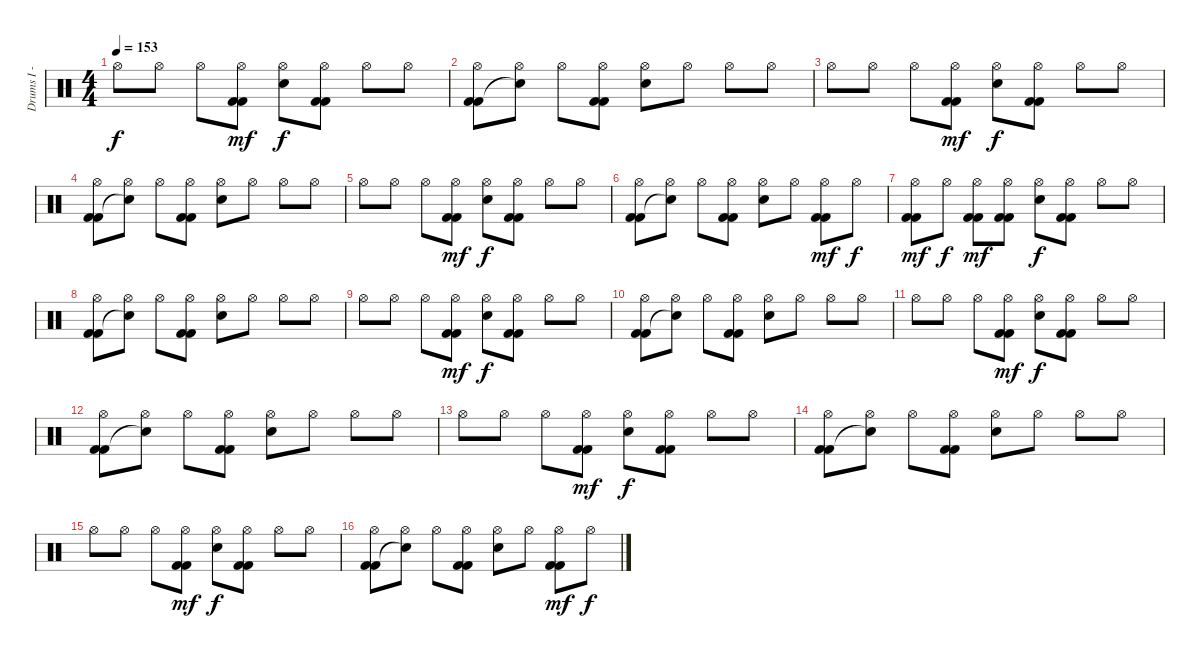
\track ("Drums I - Adam" "Drums I - ") {instrument percussion}
\staff {score}
\articulation defaults
\ts (4 4)
\tempo 153
\clef neutral
\ks c "Hi-Hat (open)".8{dy f} "Hi-Hat (open)".8 "Hi-Hat (open)".8
("Hi-Hat (open)" "Kick (hit) 2" "Kick (hit) 2").8{dy mf} ("Hi-Hat (open)" "Electric Snare (hit)").8{dy f} ("Hi-Hat (open)" "Kick (hit) 2" "Kick (hit) 2").8 "Hi-Hat (open)".8 "Hi-Hat (open)".8 |
("Hi-Hat (open)" "Kick (hit) 2" "Kick (hit) 2").8 ("Hi-Hat (open)" "Snare (hit)"{t}).8 "Hi-Hat (open)".8 ("Hi-Hat (open)" "Kick (hit) 2" "Kick (hit) 2").8 ("Hi-Hat (open)" "Electric Snare (hit)").8 "Hi-Hat (open)".8 "Hi-Hat (open)".8 "Hi-Hat (open)".8 |
"Hi-Hat (open)".8 "Hi-Hat (open)".8 "Hi-Hat (open)".8 ("Hi-Hat (open)" "Kick (hit) 2" "Kick (hit) 2").8{dy mf} ("Hi-Hat (open)" "Electric Snare (hit)").8{dy f} ("Hi-Hat (open)" "Kick (hit) 2" "Kick (hit) 2").8 "Hi-Hat (open)".8 "Hi-Hat (open)".8 |
("Hi-Hat (open)" "Kick (hit) 2" "Kick (hit) 2").8 ("Hi-Hat (open)" "Snare (hit)"{t}).8 "Hi-Hat (open)".8 ("Hi-Hat (open)" "Kick (hit) 2" "Kick (hit) 2").8 ("Hi-Hat (open)" "Electric Snare (hit)").8 "Hi-Hat (open)".8 "Hi-Hat (open)".8 "Hi-Hat (open)".8 |
"Hi-Hat (open)".8 "Hi-Hat (open)".8 "Hi-Hat (open)".8 ("Hi-Hat (open)" "Kick (hit) 2" "Kick (hit) 2").8{dy mf} ("Hi-Hat (open)" "Electric Snare (hit)").8{dy f} ("Hi-Hat (open)" "Kick (hit) 2" "Kick (hit) 2").8 "Hi-Hat (open)".8 "Hi-Hat (open)".8 |
("Hi-Hat (open)" "Kick (hit) 2" "Kick (hit) 2").8 ("Hi-Hat (open)" "Snare (hit)"{t}).8 "Hi-Hat (open)".8 ("Hi-Hat (open)" "Kick (hit) 2" "Kick (hit) 2").8 ("Hi-Hat (open)" "Electric Snare (hit)").8 "Hi-Hat (open)".8 ("Hi-Hat (open)" "Kick (hit) 2" "Kick (hit) 2").8{dy mf} "Hi-Hat (open)".8{dy f} |
("Hi-Hat (open)" "Kick (hit) 2" "Kick (hit) 2").8{dy mf} "Hi-Hat (open)".8{dy f} ("Hi-Hat (open)" "Kick (hit) 2" "Kick (hit) 2").8{dy mf} ("Hi-Hat (open)" "Kick (hit) 2" "Kick (hit) 2").8 ("Hi-Hat (open)" "Electric Snare (hit)").8{dy f} ("Hi-Hat (open)" "Kick (hit) 2" "Kick (hit) 2").8 "Hi-Hat (open)".8 "Hi-Hat (open)".8 |
("Hi-Hat (open)" "Kick (hit) 2" "Kick (hit) 2").8 ("Hi-Hat (open)" "Snare (hit)"{t}).8 "Hi-Hat (open)".8 ("Hi-Hat (open)" "Kick (hit) 2" "Kick (hit) 2").8 ("Hi-Hat (open)" "Electric Snare (hit)").8 "Hi-Hat (open)".8 "Hi-Hat (open)".8 "Hi-Hat (open)".8 |
"Hi-Hat (open)".8 "Hi-Hat (open)".8 "Hi-Hat (open)".8 ("Hi-Hat (open)" "Kick (hit) 2" "Kick (hit) 2").8{dy mf} ("Hi-Hat (open)" "Electric Snare (hit)").8{dy f} ("Hi-Hat (open)" "Kick (hit) 2" "Kick (hit) 2").8 "Hi-Hat (open)".8 "Hi-Hat (open)".8 |
("Hi-Hat (open)" "Kick (hit) 2" "Kick (hit) 2").8 ("Hi-Hat (open)" "Snare (hit)"{t}).8 "Hi-Hat (open)".8 ("Hi-Hat (open)" "Kick (hit) 2" "Kick (hit) 2").8 ("Hi-Hat (open)" "Electric Snare (hit)").8 "Hi-Hat (open)".8 "Hi-Hat (open)".8 "Hi-Hat (open)".8 |
"Hi-Hat (open)".8 "Hi-Hat (open)".8 "Hi-Hat (open)".8 ("Hi-Hat (open)" "Kick (hit) 2" "Kick (hit) 2").8{dy mf} ("Hi-Hat (open)" "Electric Snare (hit)").8{dy f} ("Hi-Hat (open)" "Kick (hit) 2" "Kick (hit) 2").8 "Hi-Hat (open)".8 "Hi-Hat (open)".8 |
("Hi-Hat (open)" "Kick (hit) 2" "Kick (hit) 2").8 ("Hi-Hat (open)" "Snare (hit)"{t}).8 "Hi-Hat (open)".8 ("Hi-Hat (open)" "Kick (hit) 2" "Kick (hit) 2").8 ("Hi-Hat (open)" "Electric Snare (hit)").8 "Hi-Hat (open)".8 "Hi-Hat (open)".8 "Hi-Hat (open)".8 |
"Hi-Hat (open)".8 "Hi-Hat (open)".8 "Hi-Hat (open)".8 ("Hi-Hat (open)" "Kick (hit) 2" "Kick (hit) 2").8{dy mf} ("Hi-Hat (open)" "Electric Snare (hit)").8{dy f} ("Hi-Hat (open)" "Kick (hit) 2" "Kick (hit) 2").8 "Hi-Hat (open)".8 "Hi-Hat (open)".8 |
("Hi-Hat (open)" "Kick (hit) 2" "Kick (hit) 2").8 ("Hi-Hat (open)" "Snare (hit)"{t}).8 "Hi-Hat (open)".8 ("Hi-Hat (open)" "Kick (hit) 2" "Kick (hit) 2").8 ("Hi-Hat (open)" "Electric Snare (hit)").8 "Hi-Hat (open)".8 "Hi-Hat (open)".8 "Hi-Hat (open)".8 |
"Hi-Hat (open)".8 "Hi-Hat (open)".8 "Hi-Hat (open)".8 ("Hi-Hat (open)" "Kick (hit) 2" "Kick (hit) 2").8{dy mf} ("Hi-Hat (open)" "Electric Snare (hit)").8{dy f} ("Hi-Hat (open)" "Kick (hit) 2" "Kick (hit) 2").8 "Hi-Hat (open)".8 "Hi-Hat (open)".8 |
("Hi-Hat (open)" "Kick (hit) 2" "Kick (hit) 2").8 ("Hi-Hat (open)" "Snare (hit)"{t}).8 "Hi-Hat (open)".8 ("Hi-Hat (open)" "Kick (hit) 2" "Kick (hit) 2").8 ("Hi-Hat (open)" "Electric Snare (hit)").8 "Hi-Hat (open)".8 ("Hi-Hat (open)" "Kick (hit) 2" "Kick (hit) 2").8{dy mf} "Hi-Hat (open)".8{dy f}
